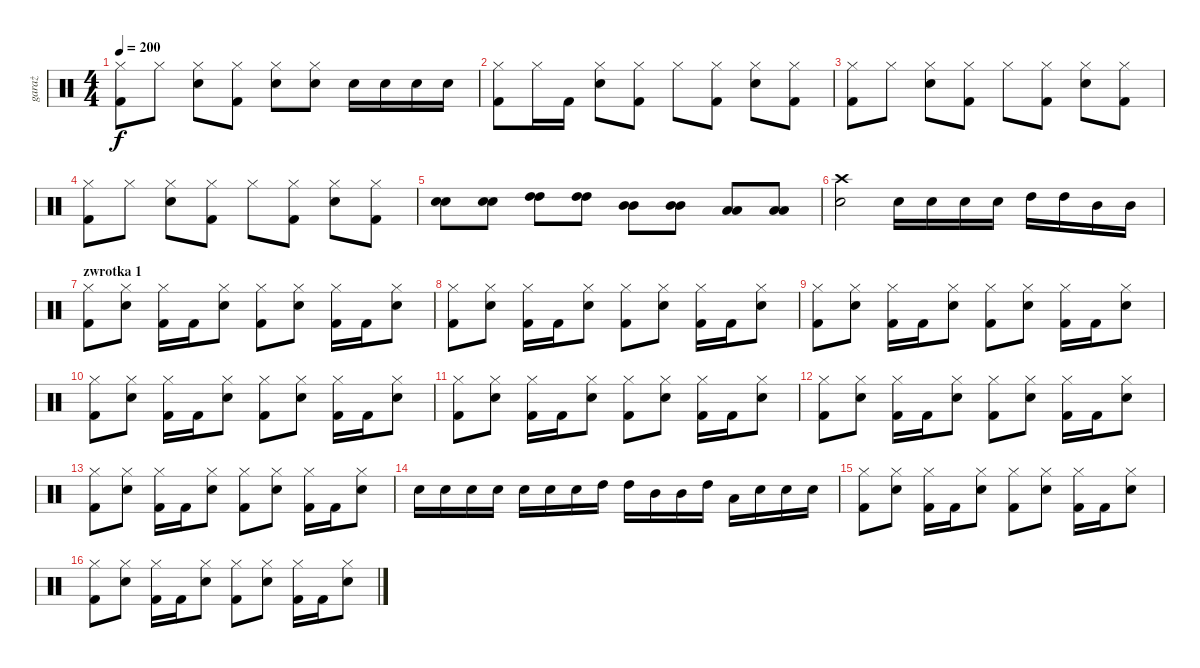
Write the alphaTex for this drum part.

\track ("garaż" "garaż") {instrument percussion}
\staff {score}
\articulation defaults
\ts (4 4)
\tempo 200
\clef neutral
\ks c
("Hi-Hat (closed)" "Kick (hit) 2").8{dy f} "Hi-Hat (closed)".8 ("Hi-Hat (closed)" "Snare (hit) 2").8 ("Hi-Hat (closed)" "Kick (hit) 2").8 ("Hi-Hat (closed)" "Snare (hit) 2").8 ("Hi-Hat (closed)" "Snare (hit) 2").8 "Snare (hit) 2".16 "Snare (hit) 2".16 "Snare (hit) 2".16 "Snare (hit) 2".16 |
("Hi-Hat (closed)" "Kick (hit) 2").8 "Hi-Hat (closed)".16 "Kick (hit) 2".16 ("Hi-Hat (closed)" "Snare (hit) 2").8 ("Hi-Hat (closed)" "Kick (hit) 2").8 "Hi-Hat (closed)".8 ("Hi-Hat (closed)" "Kick (hit) 2").8 ("Hi-Hat (closed)" "Snare (hit) 2").8 ("Hi-Hat (closed)" "Kick (hit) 2").8 |
("Hi-Hat (closed)" "Kick (hit) 2").8 "Hi-Hat (closed)".8 ("Hi-Hat (closed)" "Snare (hit) 2").8 ("Hi-Hat (closed)" "Kick (hit) 2").8 "Hi-Hat (closed)".8 ("Hi-Hat (closed)" "Kick (hit) 2").8 ("Hi-Hat (closed)" "Snare (hit) 2").8 ("Hi-Hat (closed)" "Kick (hit) 2").8 |
("Hi-Hat (closed)" "Kick (hit) 2").8 "Hi-Hat (closed)".8 ("Hi-Hat (closed)" "Snare (hit) 2").8 ("Hi-Hat (closed)" "Kick (hit) 2").8 "Hi-Hat (closed)".8 ("Hi-Hat (closed)" "Kick (hit) 2").8 ("Hi-Hat (closed)" "Snare (hit) 2").8 ("Hi-Hat (closed)" "Kick (hit) 2").8 |
("Snare (hit) 2" "Snare (hit) 2").8 ("Snare (hit) 2" "Snare (hit) 2").8 ("High Tom (hit)" "High Tom (hit)").8 ("High Tom (hit)" "High Tom (hit)").8 ("Mid Tom (hit)" "Mid Tom (hit)").8 ("Mid Tom (hit)" "Mid Tom (hit)").8 ("Low Tom (hit)" "Low Tom (hit)").8 ("Low Tom (hit)" "Low Tom (hit)").8 |
("Crash high (hit)" "Snare (hit) 2").2 "Snare (hit) 2".16 "Snare (hit) 2".16 "Snare (hit) 2".16 "Snare (hit) 2".16 "High Tom (hit)".16 "High Tom (hit)".16 "Mid Tom (hit)".16 "Mid Tom (hit)".16 |
\section ("" "zwrotka 1")
("Hi-Hat (closed)" "Kick (hit) 2").8 ("Hi-Hat (closed)" "Snare (hit) 2").8 ("Hi-Hat (closed)" "Kick (hit) 2").16 "Kick (hit) 2".16 ("Hi-Hat (closed)" "Snare (hit) 2").8 ("Hi-Hat (closed)" "Kick (hit) 2").8 ("Hi-Hat (closed)" "Snare (hit) 2").8 ("Hi-Hat (closed)" "Kick (hit) 2").16 "Kick (hit) 2".16 ("Hi-Hat (closed)" "Snare (hit) 2").8 |
("Hi-Hat (closed)" "Kick (hit) 2").8 ("Hi-Hat (closed)" "Snare (hit) 2").8 ("Hi-Hat (closed)" "Kick (hit) 2").16 "Kick (hit) 2".16 ("Hi-Hat (closed)" "Snare (hit) 2").8 ("Hi-Hat (closed)" "Kick (hit) 2").8 ("Hi-Hat (closed)" "Snare (hit) 2").8 ("Hi-Hat (closed)" "Kick (hit) 2").16 "Kick (hit) 2".16 ("Hi-Hat (closed)" "Snare (hit) 2").8 |
("Hi-Hat (closed)" "Kick (hit) 2").8 ("Hi-Hat (closed)" "Snare (hit) 2").8 ("Hi-Hat (closed)" "Kick (hit) 2").16 "Kick (hit) 2".16 ("Hi-Hat (closed)" "Snare (hit) 2").8 ("Hi-Hat (closed)" "Kick (hit) 2").8 ("Hi-Hat (closed)" "Snare (hit) 2").8 ("Hi-Hat (closed)" "Kick (hit) 2").16 "Kick (hit) 2".16 ("Hi-Hat (closed)" "Snare (hit) 2").8 |
("Hi-Hat (closed)" "Kick (hit) 2").8 ("Hi-Hat (closed)" "Snare (hit) 2").8 ("Hi-Hat (closed)" "Kick (hit) 2").16 "Kick (hit) 2".16 ("Hi-Hat (closed)" "Snare (hit) 2").8 ("Hi-Hat (closed)" "Kick (hit) 2").8 ("Hi-Hat (closed)" "Snare (hit) 2").8 ("Hi-Hat (closed)" "Kick (hit) 2").16 "Kick (hit) 2".16 ("Hi-Hat (closed)" "Snare (hit) 2").8 |
("Hi-Hat (closed)" "Kick (hit) 2").8 ("Hi-Hat (closed)" "Snare (hit) 2").8 ("Hi-Hat (closed)" "Kick (hit) 2").16 "Kick (hit) 2".16 ("Hi-Hat (closed)" "Snare (hit) 2").8 ("Hi-Hat (closed)" "Kick (hit) 2").8 ("Hi-Hat (closed)" "Snare (hit) 2").8 ("Hi-Hat (closed)" "Kick (hit) 2").16 "Kick (hit) 2".16 ("Hi-Hat (closed)" "Snare (hit) 2").8 |
("Hi-Hat (closed)" "Kick (hit) 2").8 ("Hi-Hat (closed)" "Snare (hit) 2").8 ("Hi-Hat (closed)" "Kick (hit) 2").16 "Kick (hit) 2".16 ("Hi-Hat (closed)" "Snare (hit) 2").8 ("Hi-Hat (closed)" "Kick (hit) 2").8 ("Hi-Hat (closed)" "Snare (hit) 2").8 ("Hi-Hat (closed)" "Kick (hit) 2").16 "Kick (hit) 2".16 ("Hi-Hat (closed)" "Snare (hit) 2").8 |
("Hi-Hat (closed)" "Kick (hit) 2").8 ("Hi-Hat (closed)" "Snare (hit) 2").8 ("Hi-Hat (closed)" "Kick (hit) 2").16 "Kick (hit) 2".16 ("Hi-Hat (closed)" "Snare (hit) 2").8 ("Hi-Hat (closed)" "Kick (hit) 2").8 ("Hi-Hat (closed)" "Snare (hit) 2").8 ("Hi-Hat (closed)" "Kick (hit) 2").16 "Kick (hit) 2".16 ("Hi-Hat (closed)" "Snare (hit) 2").8 |
"Snare (hit) 2".16 "Snare (hit) 2".16 "Snare (hit) 2".16 "Snare (hit) 2".16 "Snare (hit) 2".16 "Snare (hit) 2".16 "Snare (hit) 2".16 "High Tom (hit)".16 "High Tom (hit)".16 "Mid Tom (hit)".16 "Mid Tom (hit)".16 "High Tom (hit)".16 "Low Tom (hit)".16 "Snare (hit) 2".16 "Snare (hit) 2".16 "Snare (hit) 2".16 |
("Hi-Hat (closed)" "Kick (hit) 2").8 ("Hi-Hat (closed)" "Snare (hit) 2").8 ("Hi-Hat (closed)" "Kick (hit) 2").16 "Kick (hit) 2".16 ("Hi-Hat (closed)" "Snare (hit) 2").8 ("Hi-Hat (closed)" "Kick (hit) 2").8 ("Hi-Hat (closed)" "Snare (hit) 2").8 ("Hi-Hat (closed)" "Kick (hit) 2").16 "Kick (hit) 2".16 ("Hi-Hat (closed)" "Snare (hit) 2").8 |
("Hi-Hat (closed)" "Kick (hit) 2").8 ("Hi-Hat (closed)" "Snare (hit) 2").8 ("Hi-Hat (closed)" "Kick (hit) 2").16 "Kick (hit) 2".16 ("Hi-Hat (closed)" "Snare (hit) 2").8 ("Hi-Hat (closed)" "Kick (hit) 2").8 ("Hi-Hat (closed)" "Snare (hit) 2").8 ("Hi-Hat (closed)" "Kick (hit) 2").16 "Kick (hit) 2".16 ("Hi-Hat (closed)" "Snare (hit) 2").8
